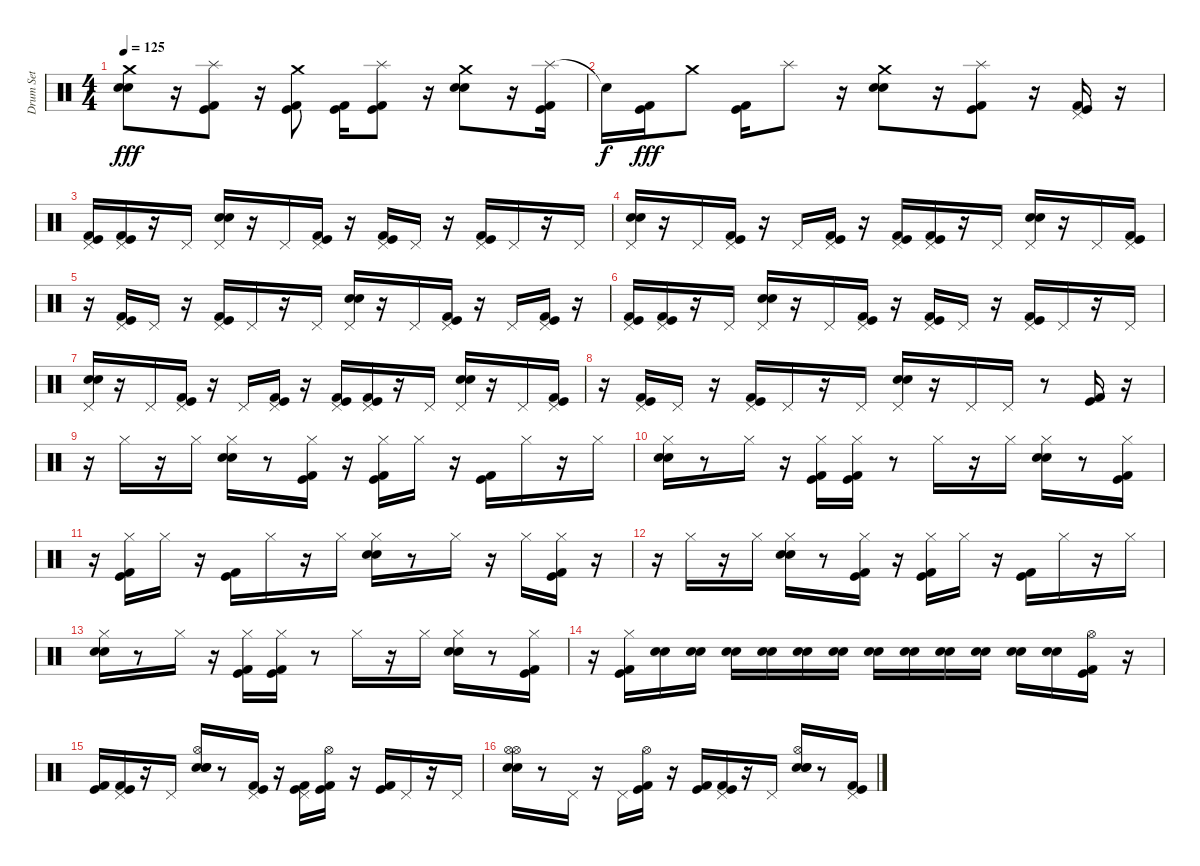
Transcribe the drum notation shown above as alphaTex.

\track ("Drum Set" "Drum Set") {instrument percussion}
\staff {score}
\articulation defaults
\ts (4 4)
\tempo 125
\clef neutral
\ks c
("Electric Snare (hit)" "Snare (hit) 2" "Crash medium (hit)").8{dy fff} r.16 ("Kick (hit)" "Kick (hit) 2" "Splash (hit)").8 r.16 ("Crash medium (hit)" "Kick (hit) 2" "Kick (hit)").8 ("Kick (hit)" "Kick (hit) 2").16 ("Splash (hit)" "Kick (hit) 2" "Kick (hit)").8 r.16 ("Crash medium (hit)" "Electric Snare (hit)" "Snare (hit) 2").8 r.16 ("Splash (hit)" "Kick (hit)" "Kick (hit) 2").16 |
"Snare (hit)"{t}.16{dy f} ("Kick (hit)" "Kick (hit) 2").16{dy fff} "Crash medium (hit)".8 ("Kick (hit)" "Kick (hit) 2").16 "Splash (hit)".8 r.16 ("Electric Snare (hit)" "Snare (hit) 2" "Crash medium (hit)").8 r.16 ("Kick (hit)" "Kick (hit) 2" "Splash (hit)").8 r.16 ("Kick (hit) 2" "Kick (hit)" "Pedal Hi-Hat (hit)").16 r.16 |
("Kick (hit)" "Kick (hit) 2" "Pedal Hi-Hat (hit)").16 ("Kick (hit) 2" "Kick (hit)" "Pedal Hi-Hat (hit)").16 r.16 "Pedal Hi-Hat (hit)".16 ("Electric Snare (hit)" "Snare (hit) 2" "Pedal Hi-Hat (hit)").16 r.16 "Pedal Hi-Hat (hit)".16 ("Kick (hit)" "Kick (hit) 2" "Pedal Hi-Hat (hit)").16 r.16 ("Kick (hit)" "Kick (hit) 2" "Pedal Hi-Hat (hit)").16 "Pedal Hi-Hat (hit)".16 r.16 ("Kick (hit)" "Kick (hit) 2" "Pedal Hi-Hat (hit)").16 "Pedal Hi-Hat (hit)".16 r.16 "Pedal Hi-Hat (hit)".16 |
("Electric Snare (hit)" "Snare (hit) 2" "Pedal Hi-Hat (hit)").16 r.16 "Pedal Hi-Hat (hit)".16 ("Kick (hit)" "Kick (hit) 2" "Pedal Hi-Hat (hit)").16 r.16 "Pedal Hi-Hat (hit)".16 ("Pedal Hi-Hat (hit)" "Kick (hit) 2" "Kick (hit)").16 r.16 ("Kick (hit)" "Kick (hit) 2" "Pedal Hi-Hat (hit)").16 ("Kick (hit) 2" "Kick (hit)" "Pedal Hi-Hat (hit)").16 r.16 "Pedal Hi-Hat (hit)".16 ("Electric Snare (hit)" "Snare (hit) 2" "Pedal Hi-Hat (hit)").16 r.16 "Pedal Hi-Hat (hit)".16 ("Kick (hit)" "Kick (hit) 2" "Pedal Hi-Hat (hit)").16 |
r.16 ("Kick (hit)" "Kick (hit) 2" "Pedal Hi-Hat (hit)").16 "Pedal Hi-Hat (hit)".16 r.16 ("Kick (hit)" "Kick (hit) 2" "Pedal Hi-Hat (hit)").16 "Pedal Hi-Hat (hit)".16 r.16 "Pedal Hi-Hat (hit)".16 ("Electric Snare (hit)" "Snare (hit) 2" "Pedal Hi-Hat (hit)").16 r.16 "Pedal Hi-Hat (hit)".16 ("Kick (hit)" "Kick (hit) 2" "Pedal Hi-Hat (hit)").16 r.16 "Pedal Hi-Hat (hit)".16 ("Pedal Hi-Hat (hit)" "Kick (hit) 2" "Kick (hit)").16 r.16 |
("Kick (hit)" "Kick (hit) 2" "Pedal Hi-Hat (hit)").16 ("Kick (hit) 2" "Kick (hit)" "Pedal Hi-Hat (hit)").16 r.16 "Pedal Hi-Hat (hit)".16 ("Electric Snare (hit)" "Snare (hit) 2" "Pedal Hi-Hat (hit)").16 r.16 "Pedal Hi-Hat (hit)".16 ("Kick (hit)" "Kick (hit) 2" "Pedal Hi-Hat (hit)").16 r.16 ("Kick (hit)" "Kick (hit) 2" "Pedal Hi-Hat (hit)").16 "Pedal Hi-Hat (hit)".16 r.16 ("Kick (hit)" "Kick (hit) 2" "Pedal Hi-Hat (hit)").16 "Pedal Hi-Hat (hit)".16 r.16 "Pedal Hi-Hat (hit)".16 |
("Electric Snare (hit)" "Snare (hit) 2" "Pedal Hi-Hat (hit)").16 r.16 "Pedal Hi-Hat (hit)".16 ("Kick (hit)" "Kick (hit) 2" "Pedal Hi-Hat (hit)").16 r.16 "Pedal Hi-Hat (hit)".16 ("Pedal Hi-Hat (hit)" "Kick (hit) 2" "Kick (hit)").16 r.16 ("Kick (hit)" "Kick (hit) 2" "Pedal Hi-Hat (hit)").16 ("Kick (hit) 2" "Kick (hit)" "Pedal Hi-Hat (hit)").16 r.16 "Pedal Hi-Hat (hit)".16 ("Electric Snare (hit)" "Snare (hit) 2" "Pedal Hi-Hat (hit)").16 r.16 "Pedal Hi-Hat (hit)".16 ("Kick (hit)" "Kick (hit) 2" "Pedal Hi-Hat (hit)").16 |
r.16 ("Kick (hit)" "Kick (hit) 2" "Pedal Hi-Hat (hit)").16 "Pedal Hi-Hat (hit)".16 r.16 ("Kick (hit)" "Kick (hit) 2" "Pedal Hi-Hat (hit)").16 "Pedal Hi-Hat (hit)".16 r.16 "Pedal Hi-Hat (hit)".16 ("Electric Snare (hit)" "Snare (hit) 2" "Pedal Hi-Hat (hit)").16 r.16 "Pedal Hi-Hat (hit)".16 "Pedal Hi-Hat (hit)".16 r.8 ("Kick (hit) 2" "Kick (hit)").16 r.16 |
r.16 "Hi-Hat (closed)".16 r.16 "Hi-Hat (closed)".16 ("Hi-Hat (closed)" "Electric Snare (hit)" "Snare (hit) 2").16 r.8 ("Hi-Hat (closed)" "Kick (hit) 2" "Kick (hit)").16 r.16 ("Hi-Hat (closed)" "Kick (hit)" "Kick (hit) 2").16 "Hi-Hat (closed)".16 r.16 ("Kick (hit) 2" "Kick (hit)").16 "Hi-Hat (closed)".16 r.16 "Hi-Hat (closed)".16 |
("Hi-Hat (closed)" "Electric Snare (hit)" "Snare (hit) 2").16 r.8 "Hi-Hat (closed)".16 r.16 ("Hi-Hat (closed)" "Kick (hit)" "Kick (hit) 2").16 ("Kick (hit)" "Kick (hit) 2" "Hi-Hat (closed)").16 r.8 "Hi-Hat (closed)".16 r.16 "Hi-Hat (closed)".16 ("Hi-Hat (closed)" "Electric Snare (hit)" "Snare (hit) 2").16 r.8 ("Hi-Hat (closed)" "Kick (hit) 2" "Kick (hit)").16 |
r.16 ("Hi-Hat (closed)" "Kick (hit) 2" "Kick (hit)").16 "Hi-Hat (closed)".16 r.16 ("Kick (hit)" "Kick (hit) 2").16 "Hi-Hat (closed)".16 r.16 "Hi-Hat (closed)".16 ("Hi-Hat (closed)" "Electric Snare (hit)" "Snare (hit) 2").16 r.8 "Hi-Hat (closed)".16 r.16 "Hi-Hat (closed)".16 ("Hi-Hat (closed)" "Kick (hit) 2" "Kick (hit)").16 r.16 |
r.16 "Hi-Hat (closed)".16 r.16 "Hi-Hat (closed)".16 ("Hi-Hat (closed)" "Electric Snare (hit)" "Snare (hit) 2").16 r.8 ("Hi-Hat (closed)" "Kick (hit) 2" "Kick (hit)").16 r.16 ("Hi-Hat (closed)" "Kick (hit)" "Kick (hit) 2").16 "Hi-Hat (closed)".16 r.16 ("Kick (hit) 2" "Kick (hit)").16 "Hi-Hat (closed)".16 r.16 "Hi-Hat (closed)".16 |
("Hi-Hat (closed)" "Electric Snare (hit)" "Snare (hit) 2").16 r.8 "Hi-Hat (closed)".16 r.16 ("Hi-Hat (closed)" "Kick (hit)" "Kick (hit) 2").16 ("Hi-Hat (closed)" "Kick (hit)" "Kick (hit) 2").16 r.8 "Hi-Hat (closed)".16 r.16 "Hi-Hat (closed)".16 ("Hi-Hat (closed)" "Electric Snare (hit)" "Snare (hit) 2").16 r.8 ("Hi-Hat (closed)" "Kick (hit) 2" "Kick (hit)").16 |
r.16 ("Hi-Hat (closed)" "Kick (hit)" "Kick (hit) 2").16 ("Snare (hit) 2" "Electric Snare (hit)").16 ("Snare (hit) 2" "Electric Snare (hit)").16 ("Electric Snare (hit)" "Snare (hit) 2").16 ("Snare (hit) 2" "Electric Snare (hit)").16 ("Electric Snare (hit)" "Snare (hit) 2").16 ("Electric Snare (hit)" "Snare (hit) 2").16 ("Electric Snare (hit)" "Snare (hit) 2").16 ("Electric Snare (hit)" "Snare (hit) 2").16 ("Electric Snare (hit)" "Snare (hit) 2").16 ("Snare (hit) 2" "Electric Snare (hit)").16 ("Snare (hit) 2" "Electric Snare (hit)").16 ("Snare (hit) 2" "Electric Snare (hit)").16 ("Hi-Hat (open)" "Kick (hit)" "Kick (hit) 2").16 r.16 |
("Kick (hit)" "Kick (hit) 2").16 ("Pedal Hi-Hat (hit)" "Kick (hit) 2" "Kick (hit)").16 r.16 "Pedal Hi-Hat (hit)".16 ("Electric Snare (hit)" "Hand Clap (hit)" "Snare (hit) 2" "Hi-Hat (open)").16 r.8 ("Kick (hit) 2" "Kick (hit)" "Pedal Hi-Hat (hit)").16 r.16 ("Kick (hit)" "Kick (hit) 2" "Pedal Hi-Hat (hit)").16 ("Kick (hit) 2" "Kick (hit)" "Hi-Hat (open)").16 r.16 ("Kick (hit) 2" "Kick (hit)").16 "Pedal Hi-Hat (hit)".16 r.16 "Pedal Hi-Hat (hit)".16 |
("Snare (hit) 2" "Electric Snare (hit)" "Hi-Hat (open)" "Hi-Hat (open)").16 r.8 "Pedal Hi-Hat (hit)".16 r.16 "Pedal Hi-Hat (hit)".16 ("Hi-Hat (open)" "Kick (hit)" "Kick (hit) 2").16 r.16 ("Kick (hit)" "Kick (hit) 2").16 ("Pedal Hi-Hat (hit)" "Kick (hit) 2" "Kick (hit)").16 r.16 "Pedal Hi-Hat (hit)".16 ("Hi-Hat (open)" "Electric Snare (hit)" "Hand Clap (hit)" "Snare (hit) 2").16 r.8 ("Kick (hit) 2" "Kick (hit)" "Pedal Hi-Hat (hit)").16
